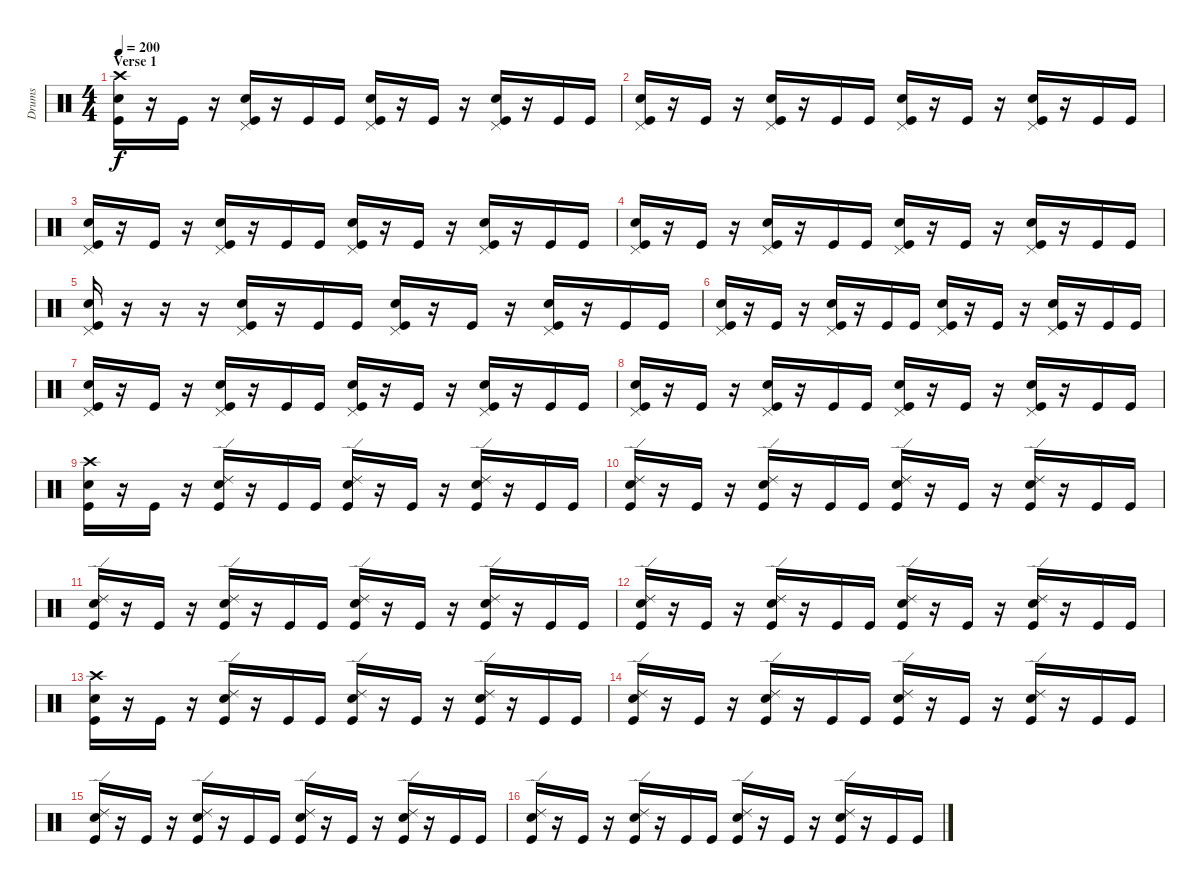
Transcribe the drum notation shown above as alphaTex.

\track ("Drums" "Drums") {instrument percussion}
\staff {score}
\articulation defaults
\ts (4 4)
\section ("" "Verse 1")
\tempo 200
\clef neutral
\ks c
("Crash high (hit)" "Snare (hit) 2" "Kick (hit)").16{dy f} r.16 "Kick (hit)".16 r.16 ("Pedal Hi-Hat (hit)" "Snare (hit) 2" "Kick (hit)").16 r.16 "Kick (hit)".16 "Kick (hit)".16 ("Pedal Hi-Hat (hit)" "Snare (hit) 2" "Kick (hit)").16 r.16 "Kick (hit)".16 r.16 ("Pedal Hi-Hat (hit)" "Snare (hit) 2" "Kick (hit)").16 r.16 "Kick (hit)".16 "Kick (hit)".16 |
("Pedal Hi-Hat (hit)" "Snare (hit) 2" "Kick (hit)").16 r.16 "Kick (hit)".16 r.16 ("Pedal Hi-Hat (hit)" "Snare (hit) 2" "Kick (hit)").16 r.16 "Kick (hit)".16 "Kick (hit)".16 ("Pedal Hi-Hat (hit)" "Snare (hit) 2" "Kick (hit)").16 r.16 "Kick (hit)".16 r.16 ("Pedal Hi-Hat (hit)" "Snare (hit) 2" "Kick (hit)").16 r.16 "Kick (hit)".16 "Kick (hit)".16 |
("Pedal Hi-Hat (hit)" "Snare (hit) 2" "Kick (hit)").16 r.16 "Kick (hit)".16 r.16 ("Pedal Hi-Hat (hit)" "Snare (hit) 2" "Kick (hit)").16 r.16 "Kick (hit)".16 "Kick (hit)".16 ("Pedal Hi-Hat (hit)" "Snare (hit) 2" "Kick (hit)").16 r.16 "Kick (hit)".16 r.16 ("Pedal Hi-Hat (hit)" "Snare (hit) 2" "Kick (hit)").16 r.16 "Kick (hit)".16 "Kick (hit)".16 |
("Pedal Hi-Hat (hit)" "Snare (hit) 2" "Kick (hit)").16 r.16 "Kick (hit)".16 r.16 ("Pedal Hi-Hat (hit)" "Snare (hit) 2" "Kick (hit)").16 r.16 "Kick (hit)".16 "Kick (hit)".16 ("Pedal Hi-Hat (hit)" "Snare (hit) 2" "Kick (hit)").16 r.16 "Kick (hit)".16 r.16 ("Pedal Hi-Hat (hit)" "Snare (hit) 2" "Kick (hit)").16 r.16 "Kick (hit)".16 "Kick (hit)".16 |
("Pedal Hi-Hat (hit)" "Snare (hit) 2" "Kick (hit)").16 r.16 r.16 r.16 ("Pedal Hi-Hat (hit)" "Snare (hit) 2" "Kick (hit)").16 r.16 "Kick (hit)".16 "Kick (hit)".16 ("Pedal Hi-Hat (hit)" "Snare (hit) 2" "Kick (hit)").16 r.16 "Kick (hit)".16 r.16 ("Pedal Hi-Hat (hit)" "Snare (hit) 2" "Kick (hit)").16 r.16 "Kick (hit)".16 "Kick (hit)".16 |
("Pedal Hi-Hat (hit)" "Snare (hit) 2" "Kick (hit)").16 r.16 "Kick (hit)".16 r.16 ("Pedal Hi-Hat (hit)" "Snare (hit) 2" "Kick (hit)").16 r.16 "Kick (hit)".16 "Kick (hit)".16 ("Pedal Hi-Hat (hit)" "Snare (hit) 2" "Kick (hit)").16 r.16 "Kick (hit)".16 r.16 ("Pedal Hi-Hat (hit)" "Snare (hit) 2" "Kick (hit)").16 r.16 "Kick (hit)".16 "Kick (hit)".16 |
("Pedal Hi-Hat (hit)" "Snare (hit) 2" "Kick (hit)").16 r.16 "Kick (hit)".16 r.16 ("Pedal Hi-Hat (hit)" "Snare (hit) 2" "Kick (hit)").16 r.16 "Kick (hit)".16 "Kick (hit)".16 ("Pedal Hi-Hat (hit)" "Snare (hit) 2" "Kick (hit)").16 r.16 "Kick (hit)".16 r.16 ("Pedal Hi-Hat (hit)" "Snare (hit) 2" "Kick (hit)").16 r.16 "Kick (hit)".16 "Kick (hit)".16 |
("Pedal Hi-Hat (hit)" "Snare (hit) 2" "Kick (hit)").16 r.16 "Kick (hit)".16 r.16 ("Pedal Hi-Hat (hit)" "Snare (hit) 2" "Kick (hit)").16 r.16 "Kick (hit)".16 "Kick (hit)".16 ("Pedal Hi-Hat (hit)" "Snare (hit) 2" "Kick (hit)").16 r.16 "Kick (hit)".16 r.16 ("Pedal Hi-Hat (hit)" "Snare (hit) 2" "Kick (hit)").16 r.16 "Kick (hit)".16 "Kick (hit)".16 |
("Crash high (hit)" "Snare (hit) 2" "Kick (hit)").16 r.16 "Kick (hit)".16 r.16 ("Ride (edge) 2" "Snare (hit) 2" "Kick (hit)").16 r.16 "Kick (hit)".16 "Kick (hit)".16 ("Ride (edge) 2" "Snare (hit) 2" "Kick (hit)").16 r.16 "Kick (hit)".16 r.16 ("Ride (edge) 2" "Snare (hit) 2" "Kick (hit)").16 r.16 "Kick (hit)".16 "Kick (hit)".16 |
("Ride (edge) 2" "Snare (hit) 2" "Kick (hit)").16 r.16 "Kick (hit)".16 r.16 ("Ride (edge) 2" "Snare (hit) 2" "Kick (hit)").16 r.16 "Kick (hit)".16 "Kick (hit)".16 ("Ride (edge) 2" "Snare (hit) 2" "Kick (hit)").16 r.16 "Kick (hit)".16 r.16 ("Ride (edge) 2" "Snare (hit) 2" "Kick (hit)").16 r.16 "Kick (hit)".16 "Kick (hit)".16 |
("Ride (edge) 2" "Snare (hit) 2" "Kick (hit)").16 r.16 "Kick (hit)".16 r.16 ("Ride (edge) 2" "Snare (hit) 2" "Kick (hit)").16 r.16 "Kick (hit)".16 "Kick (hit)".16 ("Ride (edge) 2" "Snare (hit) 2" "Kick (hit)").16 r.16 "Kick (hit)".16 r.16 ("Ride (edge) 2" "Snare (hit) 2" "Kick (hit)").16 r.16 "Kick (hit)".16 "Kick (hit)".16 |
("Ride (edge) 2" "Snare (hit) 2" "Kick (hit)").16 r.16 "Kick (hit)".16 r.16 ("Ride (edge) 2" "Snare (hit) 2" "Kick (hit)").16 r.16 "Kick (hit)".16 "Kick (hit)".16 ("Ride (edge) 2" "Snare (hit) 2" "Kick (hit)").16 r.16 "Kick (hit)".16 r.16 ("Ride (edge) 2" "Snare (hit) 2" "Kick (hit)").16 r.16 "Kick (hit)".16 "Kick (hit)".16 |
("Crash high (hit)" "Snare (hit) 2" "Kick (hit)").16 r.16 "Kick (hit)".16 r.16 ("Ride (edge) 2" "Snare (hit) 2" "Kick (hit)").16 r.16 "Kick (hit)".16 "Kick (hit)".16 ("Ride (edge) 2" "Snare (hit) 2" "Kick (hit)").16 r.16 "Kick (hit)".16 r.16 ("Ride (edge) 2" "Snare (hit) 2" "Kick (hit)").16 r.16 "Kick (hit)".16 "Kick (hit)".16 |
("Ride (edge) 2" "Snare (hit) 2" "Kick (hit)").16 r.16 "Kick (hit)".16 r.16 ("Ride (edge) 2" "Snare (hit) 2" "Kick (hit)").16 r.16 "Kick (hit)".16 "Kick (hit)".16 ("Ride (edge) 2" "Snare (hit) 2" "Kick (hit)").16 r.16 "Kick (hit)".16 r.16 ("Ride (edge) 2" "Snare (hit) 2" "Kick (hit)").16 r.16 "Kick (hit)".16 "Kick (hit)".16 |
("Ride (edge) 2" "Snare (hit) 2" "Kick (hit)").16 r.16 "Kick (hit)".16 r.16 ("Ride (edge) 2" "Snare (hit) 2" "Kick (hit)").16 r.16 "Kick (hit)".16 "Kick (hit)".16 ("Ride (edge) 2" "Snare (hit) 2" "Kick (hit)").16 r.16 "Kick (hit)".16 r.16 ("Ride (edge) 2" "Snare (hit) 2" "Kick (hit)").16 r.16 "Kick (hit)".16 "Kick (hit)".16 |
("Ride (edge) 2" "Snare (hit) 2" "Kick (hit)").16 r.16 "Kick (hit)".16 r.16 ("Ride (edge) 2" "Snare (hit) 2" "Kick (hit)").16 r.16 "Kick (hit)".16 "Kick (hit)".16 ("Ride (edge) 2" "Snare (hit) 2" "Kick (hit)").16 r.16 "Kick (hit)".16 r.16 ("Ride (edge) 2" "Snare (hit) 2" "Kick (hit)").16 r.16 "Kick (hit)".16 "Kick (hit)".16
